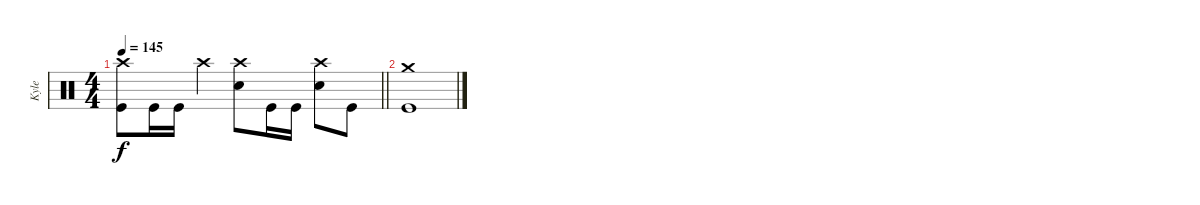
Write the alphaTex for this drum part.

\track ("Kyle" "Kyle") {instrument percussion}
\staff {score}
\articulation defaults
\ts (4 4)
\tempo 145
\clef neutral
\barLineRight lightlight
\ks c
("Crash high (hit)" "Kick (hit)").8{dy f} "Kick (hit)".16 "Kick (hit)".16 "Crash high (hit)".4 ("Crash high (hit)" "Electric Snare (hit)").8 "Kick (hit)".16 "Kick (hit)".16 ("Crash high (hit)" "Electric Snare (hit)").8 "Kick (hit)".8 |
("Crash medium (hit)" "Kick (hit)").1
